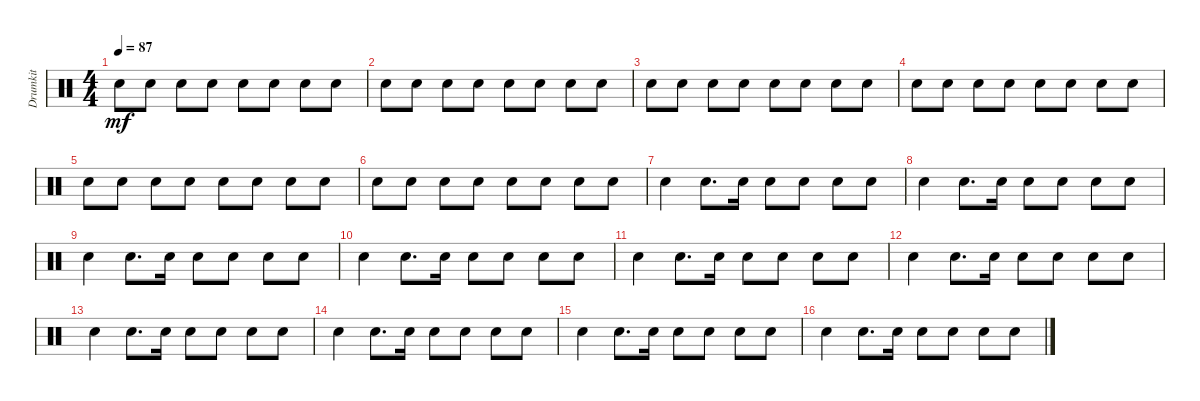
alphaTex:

\track ("Drumkit" "Drumkit") {instrument percussion}
\staff {score}
\articulation defaults
\ts (4 4)
\tempo 87
\clef neutral
\ks c "Snare (hit)".8{dy mf} "Snare (hit)".8 "Snare (hit)".8 "Snare (hit)".8 "Snare (hit)".8 "Snare (hit)".8 "Snare (hit)".8 "Snare (hit)".8
|
"Snare (hit)".8 "Snare (hit)".8 "Snare (hit)".8 "Snare (hit)".8 "Snare (hit)".8 "Snare (hit)".8 "Snare (hit)".8 "Snare (hit)".8 |
"Snare (hit)".8 "Snare (hit)".8 "Snare (hit)".8 "Snare (hit)".8 "Snare (hit)".8 "Snare (hit)".8 "Snare (hit)".8 "Snare (hit)".8 |
"Snare (hit)".8 "Snare (hit)".8 "Snare (hit)".8 "Snare (hit)".8 "Snare (hit)".8 "Snare (hit)".8 "Snare (hit)".8 "Snare (hit)".8 |
"Snare (hit)".8 "Snare (hit)".8 "Snare (hit)".8 "Snare (hit)".8 "Snare (hit)".8 "Snare (hit)".8 "Snare (hit)".8 "Snare (hit)".8 |
"Snare (hit)".8 "Snare (hit)".8 "Snare (hit)".8 "Snare (hit)".8 "Snare (hit)".8 "Snare (hit)".8 "Snare (hit)".8 "Snare (hit)".8 |
"Snare (hit)".4 "Snare (hit)".8{d} "Snare (hit)".16 "Snare (hit)".8 "Snare (hit)".8 "Snare (hit)".8 "Snare (hit)".8 |
"Snare (hit)".4 "Snare (hit)".8{d} "Snare (hit)".16 "Snare (hit)".8 "Snare (hit)".8 "Snare (hit)".8 "Snare (hit)".8 |
"Snare (hit)".4 "Snare (hit)".8{d} "Snare (hit)".16 "Snare (hit)".8 "Snare (hit)".8 "Snare (hit)".8 "Snare (hit)".8 |
"Snare (hit)".4 "Snare (hit)".8{d} "Snare (hit)".16 "Snare (hit)".8 "Snare (hit)".8 "Snare (hit)".8 "Snare (hit)".8 |
"Snare (hit)".4 "Snare (hit)".8{d} "Snare (hit)".16 "Snare (hit)".8 "Snare (hit)".8 "Snare (hit)".8 "Snare (hit)".8 |
"Snare (hit)".4 "Snare (hit)".8{d} "Snare (hit)".16 "Snare (hit)".8 "Snare (hit)".8 "Snare (hit)".8 "Snare (hit)".8 |
"Snare (hit)".4 "Snare (hit)".8{d} "Snare (hit)".16 "Snare (hit)".8 "Snare (hit)".8 "Snare (hit)".8 "Snare (hit)".8 |
"Snare (hit)".4 "Snare (hit)".8{d} "Snare (hit)".16 "Snare (hit)".8 "Snare (hit)".8 "Snare (hit)".8 "Snare (hit)".8 |
"Snare (hit)".4 "Snare (hit)".8{d} "Snare (hit)".16 "Snare (hit)".8 "Snare (hit)".8 "Snare (hit)".8 "Snare (hit)".8 |
"Snare (hit)".4 "Snare (hit)".8{d} "Snare (hit)".16 "Snare (hit)".8 "Snare (hit)".8 "Snare (hit)".8 "Snare (hit)".8
